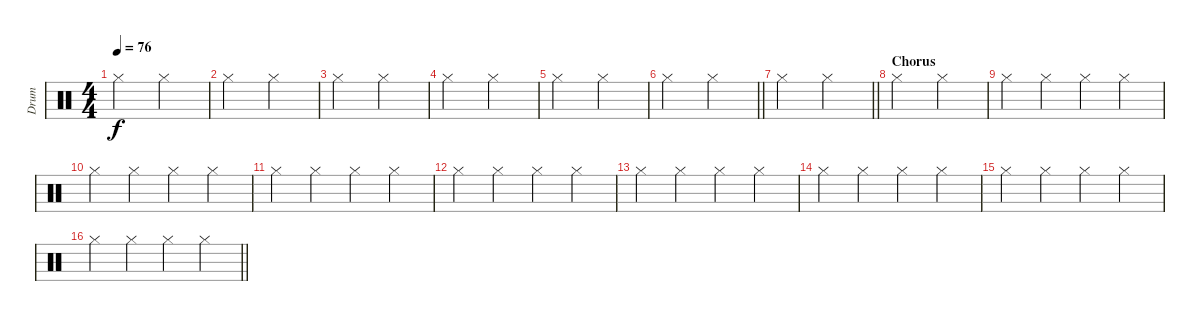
\track ("Drum" "Drum") {instrument percussion}
\staff {score}
\articulation defaults
\ts (4 4)
\tempo 76
\clef neutral
\ks c "Hi-Hat (closed)".2{dy f} "Hi-Hat (closed)".2
|
"Hi-Hat (closed)".2 "Hi-Hat (closed)".2 |
"Hi-Hat (closed)".2 "Hi-Hat (closed)".2 |
"Hi-Hat (closed)".2 "Hi-Hat (closed)".2 |
"Hi-Hat (closed)".2 "Hi-Hat (closed)".2 |
\barLineRight lightlight "Hi-Hat (closed)".2 "Hi-Hat (closed)".2
|
\barLineRight lightlight "Hi-Hat (closed)".2 "Hi-Hat (closed)".2
|
\section ("" "Chorus")
"Hi-Hat (closed)".2 "Hi-Hat (closed)".2 |
"Hi-Hat (closed)".4 "Hi-Hat (closed)".4 "Hi-Hat (closed)".4 "Hi-Hat (closed)".4 |
"Hi-Hat (closed)".4 "Hi-Hat (closed)".4 "Hi-Hat (closed)".4 "Hi-Hat (closed)".4 |
"Hi-Hat (closed)".4 "Hi-Hat (closed)".4 "Hi-Hat (closed)".4 "Hi-Hat (closed)".4 |
"Hi-Hat (closed)".4 "Hi-Hat (closed)".4 "Hi-Hat (closed)".4 "Hi-Hat (closed)".4 |
"Hi-Hat (closed)".4 "Hi-Hat (closed)".4 "Hi-Hat (closed)".4 "Hi-Hat (closed)".4 |
"Hi-Hat (closed)".4 "Hi-Hat (closed)".4 "Hi-Hat (closed)".4 "Hi-Hat (closed)".4 |
"Hi-Hat (closed)".4 "Hi-Hat (closed)".4 "Hi-Hat (closed)".4 "Hi-Hat (closed)".4 |
\barLineRight lightlight "Hi-Hat (closed)".4 "Hi-Hat (closed)".4 "Hi-Hat (closed)".4 "Hi-Hat (closed)".4
